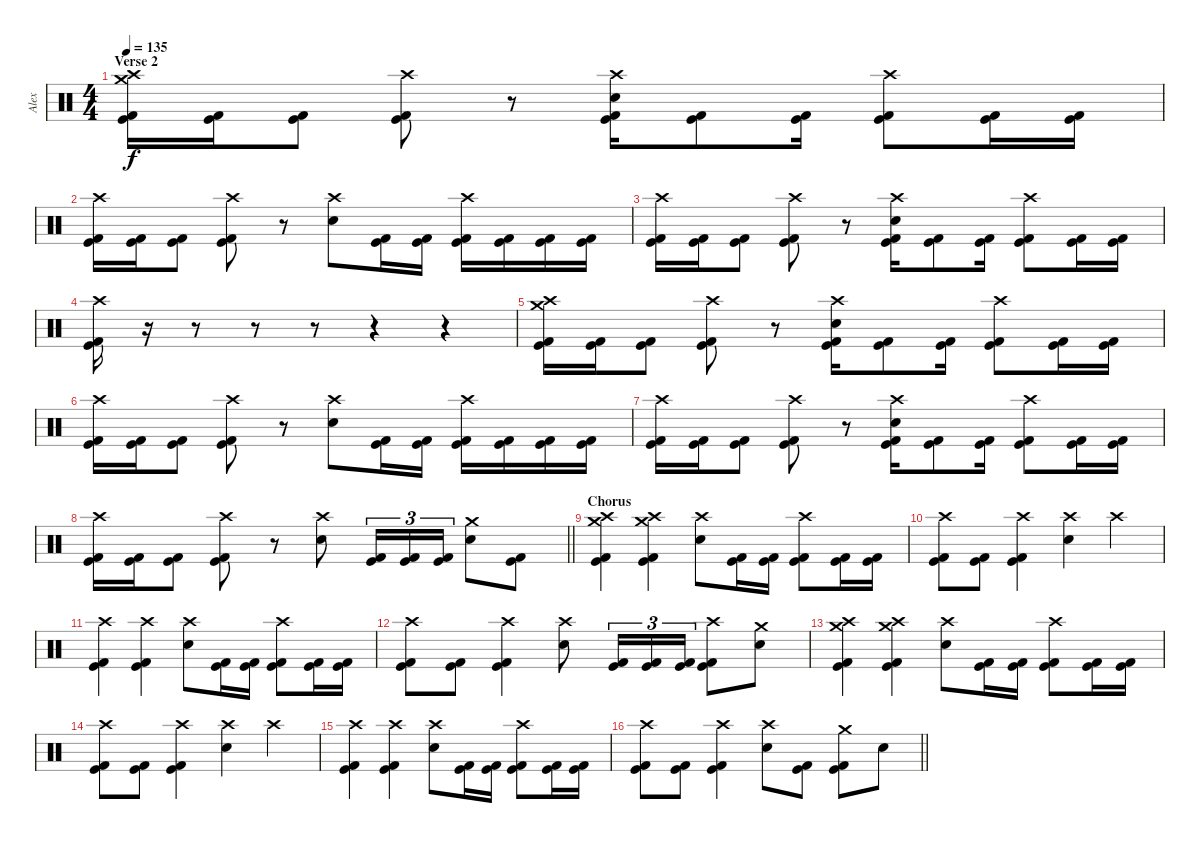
\track ("Alex" "Alex") {instrument percussion}
\staff {score}
\articulation defaults
\ts (4 4)
\section ("" "Verse 2")
\tempo 135
\clef neutral
\ks c
("Crash medium (hit)" "Crash high (hit)" "Kick (hit) 2" "Kick (hit)").16{dy f} ("Kick (hit) 2" "Kick (hit)").16 ("Kick (hit) 2" "Kick (hit)").8 ("Crash high (hit)" "Kick (hit) 2" "Kick (hit)").8 r.8 ("Crash high (hit)" "Electric Snare (hit)" "Kick (hit) 2" "Kick (hit)").16 ("Kick (hit) 2" "Kick (hit)").8 ("Kick (hit) 2" "Kick (hit)").16 ("Crash high (hit)" "Kick (hit) 2" "Kick (hit)").8 ("Kick (hit) 2" "Kick (hit)").16 ("Kick (hit) 2" "Kick (hit)").16 |
("Crash high (hit)" "Kick (hit) 2" "Kick (hit)").16 ("Kick (hit) 2" "Kick (hit)").16 ("Kick (hit) 2" "Kick (hit)").8 ("Crash high (hit)" "Kick (hit) 2" "Kick (hit)").8 r.8 ("Crash high (hit)" "Electric Snare (hit)").8 ("Kick (hit) 2" "Kick (hit)").16 ("Kick (hit) 2" "Kick (hit)").16 ("Crash high (hit)" "Kick (hit) 2" "Kick (hit)").16 ("Kick (hit) 2" "Kick (hit)").16 ("Kick (hit) 2" "Kick (hit)").16 ("Kick (hit) 2" "Kick (hit)").16 |
("Crash high (hit)" "Kick (hit) 2" "Kick (hit)").16 ("Kick (hit) 2" "Kick (hit)").16 ("Kick (hit) 2" "Kick (hit)").8 ("Crash high (hit)" "Kick (hit) 2" "Kick (hit)").8 r.8 ("Crash high (hit)" "Electric Snare (hit)" "Kick (hit) 2" "Kick (hit)").16 ("Kick (hit) 2" "Kick (hit)").8 ("Kick (hit) 2" "Kick (hit)").16 ("Crash high (hit)" "Kick (hit) 2" "Kick (hit)").8 ("Kick (hit) 2" "Kick (hit)").16 ("Kick (hit) 2" "Kick (hit)").16 |
("Crash high (hit)" "Kick (hit) 2" "Kick (hit)").16 r.16 r.8 r.8 r.8 r.4 r.4 |
("Crash medium (hit)" "Crash high (hit)" "Kick (hit) 2" "Kick (hit)").16 ("Kick (hit) 2" "Kick (hit)").16 ("Kick (hit) 2" "Kick (hit)").8 ("Crash high (hit)" "Kick (hit) 2" "Kick (hit)").8 r.8 ("Crash high (hit)" "Electric Snare (hit)" "Kick (hit) 2" "Kick (hit)").16 ("Kick (hit) 2" "Kick (hit)").8 ("Kick (hit) 2" "Kick (hit)").16 ("Crash high (hit)" "Kick (hit) 2" "Kick (hit)").8 ("Kick (hit) 2" "Kick (hit)").16 ("Kick (hit) 2" "Kick (hit)").16 |
("Crash high (hit)" "Kick (hit) 2" "Kick (hit)").16 ("Kick (hit) 2" "Kick (hit)").16 ("Kick (hit) 2" "Kick (hit)").8 ("Crash high (hit)" "Kick (hit) 2" "Kick (hit)").8 r.8 ("Crash high (hit)" "Electric Snare (hit)").8 ("Kick (hit) 2" "Kick (hit)").16 ("Kick (hit) 2" "Kick (hit)").16 ("Crash high (hit)" "Kick (hit) 2" "Kick (hit)").16 ("Kick (hit) 2" "Kick (hit)").16 ("Kick (hit) 2" "Kick (hit)").16 ("Kick (hit) 2" "Kick (hit)").16 |
("Crash high (hit)" "Kick (hit) 2" "Kick (hit)").16 ("Kick (hit) 2" "Kick (hit)").16 ("Kick (hit) 2" "Kick (hit)").8 ("Crash high (hit)" "Kick (hit) 2" "Kick (hit)").8 r.8 ("Crash high (hit)" "Electric Snare (hit)" "Kick (hit) 2" "Kick (hit)").16 ("Kick (hit) 2" "Kick (hit)").8 ("Kick (hit) 2" "Kick (hit)").16 ("Crash high (hit)" "Kick (hit) 2" "Kick (hit)").8 ("Kick (hit) 2" "Kick (hit)").16 ("Kick (hit) 2" "Kick (hit)").16 |
\barLineRight lightlight
("Crash high (hit)" "Kick (hit) 2" "Kick (hit)").16 ("Kick (hit) 2" "Kick (hit)").16 ("Kick (hit) 2" "Kick (hit)").8 ("Crash high (hit)" "Kick (hit) 2" "Kick (hit)").8 r.8 ("Crash high (hit)" "Electric Snare (hit)").8 ("Kick (hit) 2" "Kick (hit)").16{tu (3 2)} ("Kick (hit) 2" "Kick (hit)").16{tu (3 2)} ("Kick (hit) 2" "Kick (hit)").16{tu (3 2)} ("Crash medium (hit)" "Electric Snare (hit)").8 ("Kick (hit) 2" "Kick (hit)").8 |
\section ("" "Chorus")
("Crash medium (hit)" "Crash high (hit)" "Kick (hit) 2" "Kick (hit)").4 ("Crash medium (hit)" "Crash high (hit)" "Kick (hit) 2" "Kick (hit)").4 ("Crash high (hit)" "Electric Snare (hit)").8 ("Kick (hit) 2" "Kick (hit)").16 ("Kick (hit) 2" "Kick (hit)").16 ("Crash high (hit)" "Kick (hit) 2" "Kick (hit)").8 ("Kick (hit) 2" "Kick (hit)").16 ("Kick (hit) 2" "Kick (hit)").16 |
("Crash high (hit)" "Kick (hit) 2" "Kick (hit)").8 ("Kick (hit) 2" "Kick (hit)").8 ("Crash high (hit)" "Kick (hit) 2" "Kick (hit)").4 ("Crash high (hit)" "Electric Snare (hit)").4 "Crash high (hit)".4 |
("Crash high (hit)" "Kick (hit) 2" "Kick (hit)").4 ("Crash high (hit)" "Kick (hit) 2" "Kick (hit)").4 ("Crash high (hit)" "Electric Snare (hit)").8 ("Kick (hit) 2" "Kick (hit)").16 ("Kick (hit) 2" "Kick (hit)").16 ("Crash high (hit)" "Kick (hit) 2" "Kick (hit)").8 ("Kick (hit) 2" "Kick (hit)").16 ("Kick (hit) 2" "Kick (hit)").16 |
("Crash high (hit)" "Kick (hit) 2" "Kick (hit)").8 ("Kick (hit) 2" "Kick (hit)").8 ("Crash high (hit)" "Kick (hit) 2" "Kick (hit)").4 ("Crash high (hit)" "Electric Snare (hit)").8 ("Kick (hit) 2" "Kick (hit)").16{tu (3 2)} ("Kick (hit) 2" "Kick (hit)").16{tu (3 2)} ("Kick (hit) 2" "Kick (hit)").16{tu (3 2)} ("Crash high (hit)" "Kick (hit) 2" "Kick (hit)").8 ("Crash medium (hit)" "Electric Snare (hit)").8 |
("Crash medium (hit)" "Crash high (hit)" "Kick (hit) 2" "Kick (hit)").4 ("Crash medium (hit)" "Crash high (hit)" "Kick (hit) 2" "Kick (hit)").4 ("Crash high (hit)" "Electric Snare (hit)").8 ("Kick (hit) 2" "Kick (hit)").16 ("Kick (hit) 2" "Kick (hit)").16 ("Crash high (hit)" "Kick (hit) 2" "Kick (hit)").8 ("Kick (hit) 2" "Kick (hit)").16 ("Kick (hit) 2" "Kick (hit)").16 |
("Crash high (hit)" "Kick (hit) 2" "Kick (hit)").8 ("Kick (hit) 2" "Kick (hit)").8 ("Crash high (hit)" "Kick (hit) 2" "Kick (hit)").4 ("Crash high (hit)" "Electric Snare (hit)").4 "Crash high (hit)".4 |
("Crash high (hit)" "Kick (hit) 2" "Kick (hit)").4 ("Crash high (hit)" "Kick (hit) 2" "Kick (hit)").4 ("Crash high (hit)" "Electric Snare (hit)").8 ("Kick (hit) 2" "Kick (hit)").16 ("Kick (hit) 2" "Kick (hit)").16 ("Crash high (hit)" "Kick (hit) 2" "Kick (hit)").8 ("Kick (hit) 2" "Kick (hit)").16 ("Kick (hit) 2" "Kick (hit)").16 |
\barLineRight lightlight
("Crash high (hit)" "Kick (hit) 2" "Kick (hit)").8 ("Kick (hit) 2" "Kick (hit)").8 ("Crash high (hit)" "Kick (hit) 2" "Kick (hit)").4 ("Crash high (hit)" "Electric Snare (hit)").8 ("Kick (hit) 2" "Kick (hit)").8 ("Crash medium (hit)" "Kick (hit) 2" "Kick (hit)").8 "Electric Snare (hit)".8
